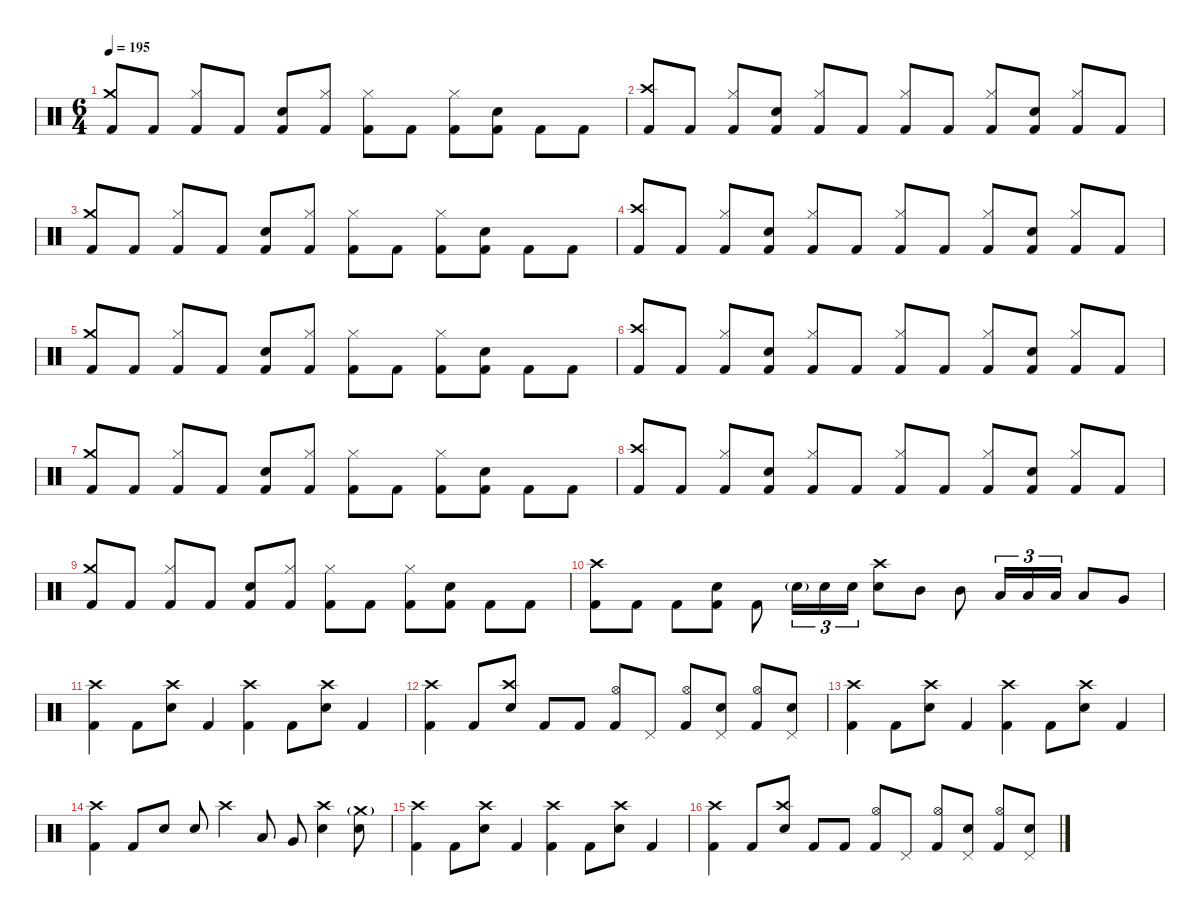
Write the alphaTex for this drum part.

\defaultSystemsLayout 4
\hideDynamics
\bracketExtendMode nobrackets
\singleTrackTrackNamePolicy hidden
\multiTrackTrackNamePolicy hidden
\firstSystemTrackNameMode fullname
\firstSystemTrackNameOrientation horizontal
\otherSystemsTrackNameOrientation horizontal
\track ("Drums" "drm.") {instrument percussion}
\staff {score}
\articulation defaults
\ts (6 4)
\tempo 195
\clef neutral
\ks c
("Crash medium (hit)" "Kick (hit) 2").8{dy f beam Up} "Kick (hit) 2".8{beam Up} ("Hi-Hat (closed)" "Kick (hit) 2").8{beam Up} "Kick (hit) 2".8{beam Up} ("Snare (hit) 2" "Kick (hit) 2").8{beam Up} ("Hi-Hat (closed)" "Kick (hit) 2").8{beam Up} ("Hi-Hat (closed)" "Kick (hit) 2").8{beam Down} "Kick (hit) 2".8{beam Down} ("Hi-Hat (closed)" "Kick (hit) 2").8{beam Down} ("Snare (hit) 2" "Kick (hit) 2").8{beam Down} "Kick (hit) 2".8{beam Down} "Kick (hit) 2".8{beam Down} |
("Crash high (hit)" "Kick (hit) 2").8{beam Up} "Kick (hit) 2".8{beam Up} ("Hi-Hat (closed)" "Kick (hit) 2").8{beam Up} ("Snare (hit) 2" "Kick (hit) 2").8{beam Up} ("Hi-Hat (closed)" "Kick (hit) 2").8{beam Up} "Kick (hit) 2".8{beam Up} ("Hi-Hat (closed)" "Kick (hit) 2").8{beam Up} "Kick (hit) 2".8{beam Up} ("Hi-Hat (closed)" "Kick (hit) 2").8{beam Up} ("Snare (hit) 2" "Kick (hit) 2").8{beam Up} ("Hi-Hat (closed)" "Kick (hit) 2").8{beam Up} "Kick (hit) 2".8{beam Up} |
("Crash medium (hit)" "Kick (hit) 2").8{beam Up} "Kick (hit) 2".8{beam Up} ("Hi-Hat (closed)" "Kick (hit) 2").8{beam Up} "Kick (hit) 2".8{beam Up} ("Snare (hit) 2" "Kick (hit) 2").8{beam Up} ("Hi-Hat (closed)" "Kick (hit) 2").8{beam Up} ("Hi-Hat (closed)" "Kick (hit) 2").8{beam Down} "Kick (hit) 2".8{beam Down} ("Hi-Hat (closed)" "Kick (hit) 2").8{beam Down} ("Snare (hit) 2" "Kick (hit) 2").8{beam Down} "Kick (hit) 2".8{beam Down} "Kick (hit) 2".8{beam Down} |
("Crash high (hit)" "Kick (hit) 2").8{beam Up} "Kick (hit) 2".8{beam Up} ("Hi-Hat (closed)" "Kick (hit) 2").8{beam Up} ("Snare (hit) 2" "Kick (hit) 2").8{beam Up} ("Hi-Hat (closed)" "Kick (hit) 2").8{beam Up} "Kick (hit) 2".8{beam Up} ("Hi-Hat (closed)" "Kick (hit) 2").8{beam Up} "Kick (hit) 2".8{beam Up} ("Hi-Hat (closed)" "Kick (hit) 2").8{beam Up} ("Snare (hit) 2" "Kick (hit) 2").8{beam Up} ("Hi-Hat (closed)" "Kick (hit) 2").8{beam Up} "Kick (hit) 2".8{beam Up} |
("Crash medium (hit)" "Kick (hit) 2").8{beam Up} "Kick (hit) 2".8{beam Up} ("Hi-Hat (closed)" "Kick (hit) 2").8{beam Up} "Kick (hit) 2".8{beam Up} ("Snare (hit) 2" "Kick (hit) 2").8{beam Up} ("Hi-Hat (closed)" "Kick (hit) 2").8{beam Up} ("Hi-Hat (closed)" "Kick (hit) 2").8{beam Down} "Kick (hit) 2".8{beam Down} ("Hi-Hat (closed)" "Kick (hit) 2").8{beam Down} ("Snare (hit) 2" "Kick (hit) 2").8{beam Down} "Kick (hit) 2".8{beam Down} "Kick (hit) 2".8{beam Down} |
("Crash high (hit)" "Kick (hit) 2").8{beam Up} "Kick (hit) 2".8{beam Up} ("Hi-Hat (closed)" "Kick (hit) 2").8{beam Up} ("Snare (hit) 2" "Kick (hit) 2").8{beam Up} ("Hi-Hat (closed)" "Kick (hit) 2").8{beam Up} "Kick (hit) 2".8{beam Up} ("Hi-Hat (closed)" "Kick (hit) 2").8{beam Up} "Kick (hit) 2".8{beam Up} ("Hi-Hat (closed)" "Kick (hit) 2").8{beam Up} ("Snare (hit) 2" "Kick (hit) 2").8{beam Up} ("Hi-Hat (closed)" "Kick (hit) 2").8{beam Up} "Kick (hit) 2".8{beam Up} |
("Crash medium (hit)" "Kick (hit) 2").8{beam Up} "Kick (hit) 2".8{beam Up} ("Hi-Hat (closed)" "Kick (hit) 2").8{beam Up} "Kick (hit) 2".8{beam Up} ("Snare (hit) 2" "Kick (hit) 2").8{beam Up} ("Hi-Hat (closed)" "Kick (hit) 2").8{beam Up} ("Hi-Hat (closed)" "Kick (hit) 2").8{beam Down} "Kick (hit) 2".8{beam Down} ("Hi-Hat (closed)" "Kick (hit) 2").8{beam Down} ("Snare (hit) 2" "Kick (hit) 2").8{beam Down} "Kick (hit) 2".8{beam Down} "Kick (hit) 2".8{beam Down} |
("Crash high (hit)" "Kick (hit) 2").8{beam Up} "Kick (hit) 2".8{beam Up} ("Hi-Hat (closed)" "Kick (hit) 2").8{beam Up} ("Snare (hit) 2" "Kick (hit) 2").8{beam Up} ("Hi-Hat (closed)" "Kick (hit) 2").8{beam Up} "Kick (hit) 2".8{beam Up} ("Hi-Hat (closed)" "Kick (hit) 2").8{beam Up} "Kick (hit) 2".8{beam Up} ("Hi-Hat (closed)" "Kick (hit) 2").8{beam Up} ("Snare (hit) 2" "Kick (hit) 2").8{beam Up} ("Hi-Hat (closed)" "Kick (hit) 2").8{beam Up} "Kick (hit) 2".8{beam Up} |
("Crash medium (hit)" "Kick (hit) 2").8{beam Up} "Kick (hit) 2".8{beam Up} ("Hi-Hat (closed)" "Kick (hit) 2").8{beam Up} "Kick (hit) 2".8{beam Up} ("Snare (hit) 2" "Kick (hit) 2").8{beam Up} ("Hi-Hat (closed)" "Kick (hit) 2").8{beam Up} ("Hi-Hat (closed)" "Kick (hit) 2").8{beam Down} "Kick (hit) 2".8{beam Down} ("Hi-Hat (closed)" "Kick (hit) 2").8{beam Down} ("Snare (hit) 2" "Kick (hit) 2").8{beam Down} "Kick (hit) 2".8{beam Down} "Kick (hit) 2".8{beam Down} |
("Crash high (hit)" "Kick (hit) 2").8{beam Down} "Kick (hit) 2".8{beam Down} "Kick (hit) 2".8{beam Down} ("Snare (hit) 2" "Kick (hit) 2").8{beam Down} "Kick (hit) 2".8{beam Down} "Snare (hit) 2"{g}.16{tu (3 2) dy mf beam Down} "Snare (hit) 2".16{tu (3 2) dy f beam Down} "Snare (hit) 2".16{tu (3 2) beam Down} ("Crash high (hit)" "Snare (hit) 2").8{beam Down} "Mid Tom (hit)".8{beam Down} "Mid Tom (hit)".8{beam Down} "Low Tom (hit)".16{tu (3 2) beam Up} "Low Tom (hit)".16{tu (3 2) beam Up} "Low Tom (hit)".16{tu (3 2) beam Up} "Low Tom (hit)".8{beam Up} "Very Low Tom (hit)".8{beam Up} |
("Crash high (hit)" "Kick (hit) 2").4{beam Down} "Kick (hit) 2".8{beam Down} ("Crash high (hit)" "Snare (hit) 2").8{beam Down} "Kick (hit) 2".4{beam Up} ("Crash high (hit)" "Kick (hit) 2").4{beam Down} "Kick (hit) 2".8{beam Down} ("Crash high (hit)" "Snare (hit) 2").8{beam Down} "Kick (hit) 2".4{beam Up} |
("Crash high (hit)" "Kick (hit) 2").4{beam Down} "Kick (hit) 2".8{beam Up} ("Crash high (hit)" "Snare (hit) 2").8{beam Up} "Kick (hit) 2".8{beam Up} "Kick (hit) 2".8{beam Up} ("Hi-Hat (open)" "Kick (hit) 2").8{beam Up} "Pedal Hi-Hat (hit)".8{beam Up} ("Hi-Hat (open)" "Kick (hit) 2").8{beam Up} ("Pedal Hi-Hat (hit)" "Snare (hit) 2").8{beam Up} ("Hi-Hat (open)" "Kick (hit) 2").8{beam Up} ("Pedal Hi-Hat (hit)" "Snare (hit) 2").8{beam Up} |
("Crash high (hit)" "Kick (hit) 2").4{beam Down} "Kick (hit) 2".8{beam Down} ("Crash high (hit)" "Snare (hit) 2").8{beam Down} "Kick (hit) 2".4{beam Up} ("Crash high (hit)" "Kick (hit) 2").4{beam Down} "Kick (hit) 2".8{beam Down} ("Crash high (hit)" "Snare (hit) 2").8{beam Down} "Kick (hit) 2".4{beam Up} |
("Crash high (hit)" "Kick (hit) 2").4{beam Down} "Kick (hit) 2".8{beam Up} "Snare (hit) 2".8{beam Up} "Snare (hit) 2".8{beam Up} "Crash high (hit)".4{beam Down} "Low Tom (hit)".8{beam Up} "Very Low Tom (hit)".8{beam Up} ("Crash high (hit)" "Snare (hit) 2").4{beam Down} ("Crash medium (hit)"{g} "Snare (hit) 2").8{beam Down} |
("Crash high (hit)" "Kick (hit) 2").4{beam Down} "Kick (hit) 2".8{beam Down} ("Crash high (hit)" "Snare (hit) 2").8{beam Down} "Kick (hit) 2".4{beam Up} ("Crash high (hit)" "Kick (hit) 2").4{beam Down} "Kick (hit) 2".8{beam Down} ("Crash high (hit)" "Snare (hit) 2").8{beam Down} "Kick (hit) 2".4{beam Up} |
("Crash high (hit)" "Kick (hit) 2").4{beam Down} "Kick (hit) 2".8{beam Up} ("Crash high (hit)" "Snare (hit) 2").8{beam Up} "Kick (hit) 2".8{beam Up} "Kick (hit) 2".8{beam Up} ("Hi-Hat (open)" "Kick (hit) 2").8{beam Up} "Pedal Hi-Hat (hit)".8{beam Up} ("Hi-Hat (open)" "Kick (hit) 2").8{beam Up} ("Pedal Hi-Hat (hit)" "Snare (hit) 2").8{beam Up} ("Hi-Hat (open)" "Kick (hit) 2").8{beam Up} ("Pedal Hi-Hat (hit)" "Snare (hit) 2").8{beam Up}
